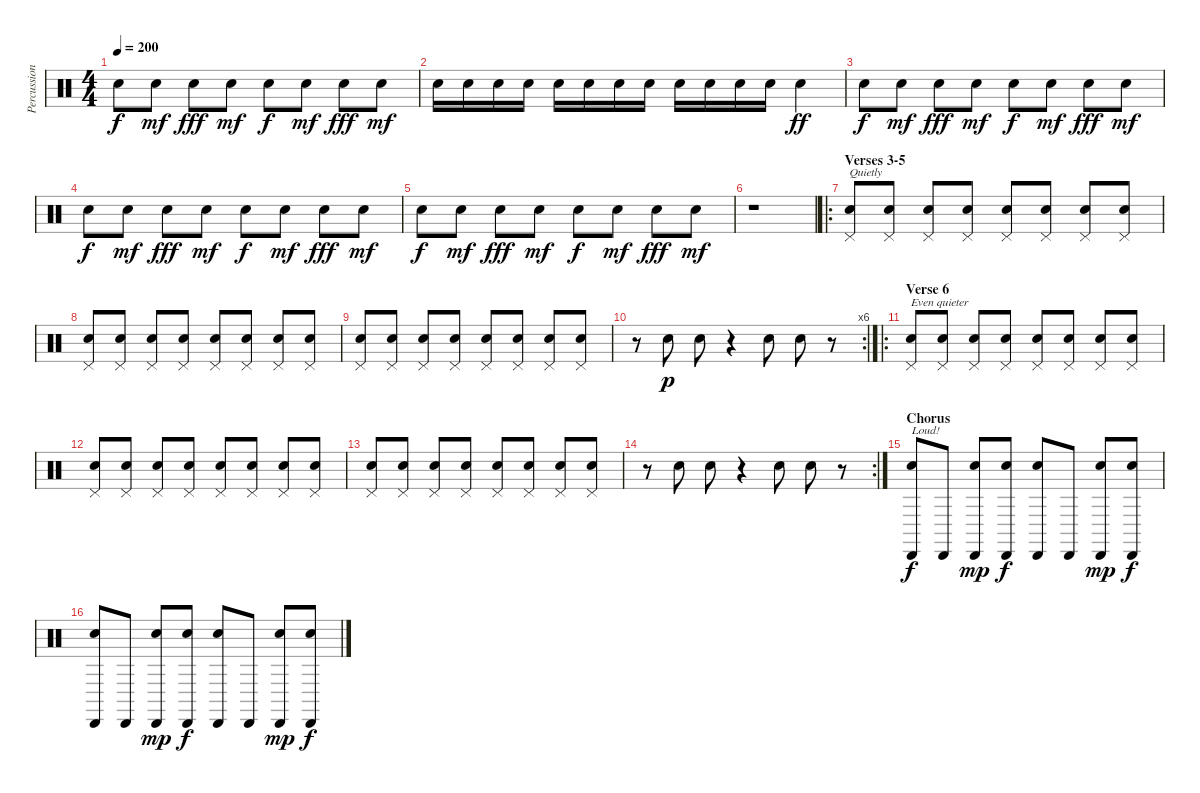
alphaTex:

\track ("Percussion" "Percussion") {instrument percussion}
\staff {score}
\articulation defaults
\ts (4 4)
\tempo 200
\clef neutral
\ks c "Snare (hit) 2".8{dy f} "Snare (hit) 2".8{dy mf} "Snare (hit) 2".8{dy fff} "Snare (hit) 2".8{dy mf} "Snare (hit) 2".8{dy f} "Snare (hit) 2".8{dy mf} "Snare (hit) 2".8{dy fff} "Snare (hit) 2".8{dy mf}
|
"Snare (hit) 2".16 "Snare (hit) 2".16 "Snare (hit) 2".16 "Snare (hit) 2".16 "Snare (hit) 2".16 "Snare (hit) 2".16 "Snare (hit) 2".16 "Snare (hit) 2".16 "Snare (hit) 2".16 "Snare (hit) 2".16 "Snare (hit) 2".16 "Snare (hit) 2".16 "Snare (hit) 2".4{dy ff} |
"Snare (hit) 2".8{dy f} "Snare (hit) 2".8{dy mf} "Snare (hit) 2".8{dy fff} "Snare (hit) 2".8{dy mf} "Snare (hit) 2".8{dy f} "Snare (hit) 2".8{dy mf} "Snare (hit) 2".8{dy fff} "Snare (hit) 2".8{dy mf} |
"Snare (hit) 2".8{dy f} "Snare (hit) 2".8{dy mf} "Snare (hit) 2".8{dy fff} "Snare (hit) 2".8{dy mf} "Snare (hit) 2".8{dy f} "Snare (hit) 2".8{dy mf} "Snare (hit) 2".8{dy fff} "Snare (hit) 2".8{dy mf} |
"Snare (hit) 2".8{dy f} "Snare (hit) 2".8{dy mf} "Snare (hit) 2".8{dy fff} "Snare (hit) 2".8{dy mf} "Snare (hit) 2".8{dy f} "Snare (hit) 2".8{dy mf} "Snare (hit) 2".8{dy fff} "Snare (hit) 2".8{dy mf} |
r.1 |
\ro
\section ("" "Verses 3-5")
("Snare (hit) 2" "Pedal Hi-Hat (hit)").8{txt "Quietly" volume 5} ("Snare (hit) 2" "Pedal Hi-Hat (hit)").8 ("Snare (hit) 2" "Pedal Hi-Hat (hit)").8 ("Snare (hit) 2" "Pedal Hi-Hat (hit)").8 ("Snare (hit) 2" "Pedal Hi-Hat (hit)").8 ("Snare (hit) 2" "Pedal Hi-Hat (hit)").8 ("Snare (hit) 2" "Pedal Hi-Hat (hit)").8 ("Snare (hit) 2" "Pedal Hi-Hat (hit)").8 |
("Snare (hit) 2" "Pedal Hi-Hat (hit)").8 ("Snare (hit) 2" "Pedal Hi-Hat (hit)").8 ("Snare (hit) 2" "Pedal Hi-Hat (hit)").8 ("Snare (hit) 2" "Pedal Hi-Hat (hit)").8 ("Snare (hit) 2" "Pedal Hi-Hat (hit)").8 ("Snare (hit) 2" "Pedal Hi-Hat (hit)").8 ("Snare (hit) 2" "Pedal Hi-Hat (hit)").8 ("Snare (hit) 2" "Pedal Hi-Hat (hit)").8 |
("Snare (hit) 2" "Pedal Hi-Hat (hit)").8 ("Snare (hit) 2" "Pedal Hi-Hat (hit)").8 ("Snare (hit) 2" "Pedal Hi-Hat (hit)").8 ("Snare (hit) 2" "Pedal Hi-Hat (hit)").8 ("Snare (hit) 2" "Pedal Hi-Hat (hit)").8 ("Snare (hit) 2" "Pedal Hi-Hat (hit)").8 ("Snare (hit) 2" "Pedal Hi-Hat (hit)").8 ("Snare (hit) 2" "Pedal Hi-Hat (hit)").8 |
\rc 6
r.8 "Snare (hit) 2".8{dy p} "Snare (hit) 2".8 r.4 "Snare (hit) 2".8 "Snare (hit) 2".8 r.8 |
\ro
\section ("" "Verse 6")
("Snare (hit) 2" "Pedal Hi-Hat (hit)").8{txt "Even quieter" volume 5} ("Snare (hit) 2" "Pedal Hi-Hat (hit)").8 ("Snare (hit) 2" "Pedal Hi-Hat (hit)").8 ("Snare (hit) 2" "Pedal Hi-Hat (hit)").8 ("Snare (hit) 2" "Pedal Hi-Hat (hit)").8 ("Snare (hit) 2" "Pedal Hi-Hat (hit)").8 ("Snare (hit) 2" "Pedal Hi-Hat (hit)").8 ("Snare (hit) 2" "Pedal Hi-Hat (hit)").8 |
("Snare (hit) 2" "Pedal Hi-Hat (hit)").8 ("Snare (hit) 2" "Pedal Hi-Hat (hit)").8 ("Snare (hit) 2" "Pedal Hi-Hat (hit)").8 ("Snare (hit) 2" "Pedal Hi-Hat (hit)").8 ("Snare (hit) 2" "Pedal Hi-Hat (hit)").8 ("Snare (hit) 2" "Pedal Hi-Hat (hit)").8 ("Snare (hit) 2" "Pedal Hi-Hat (hit)").8 ("Snare (hit) 2" "Pedal Hi-Hat (hit)").8 |
("Snare (hit) 2" "Pedal Hi-Hat (hit)").8 ("Snare (hit) 2" "Pedal Hi-Hat (hit)").8 ("Snare (hit) 2" "Pedal Hi-Hat (hit)").8 ("Snare (hit) 2" "Pedal Hi-Hat (hit)").8 ("Snare (hit) 2" "Pedal Hi-Hat (hit)").8 ("Snare (hit) 2" "Pedal Hi-Hat (hit)").8 ("Snare (hit) 2" "Pedal Hi-Hat (hit)").8 ("Snare (hit) 2" "Pedal Hi-Hat (hit)").8 |
\rc 2
r.8 "Snare (hit) 2".8 "Snare (hit) 2".8 r.4 "Snare (hit) 2".8 "Snare (hit) 2".8 r.8 |
\section ("" "Chorus")
("Cabasa (hit)" "Snare (hit) 2").8{txt "Loud!" dy f volume 8} "Cabasa (hit)".8 ("Cabasa (hit)" "Snare (hit) 2").8{dy mp} ("Cabasa (hit)" "Snare (hit) 2").8{dy f} ("Cabasa (hit)" "Snare (hit) 2").8 "Cabasa (hit)".8 ("Cabasa (hit)" "Snare (hit) 2").8{dy mp} ("Cabasa (hit)" "Snare (hit) 2").8{dy f} |
("Cabasa (hit)" "Snare (hit) 2").8 "Cabasa (hit)".8 ("Cabasa (hit)" "Snare (hit) 2").8{dy mp} ("Cabasa (hit)" "Snare (hit) 2").8{dy f} ("Cabasa (hit)" "Snare (hit) 2").8 "Cabasa (hit)".8 ("Cabasa (hit)" "Snare (hit) 2").8{dy mp} ("Cabasa (hit)" "Snare (hit) 2").8{dy f}
